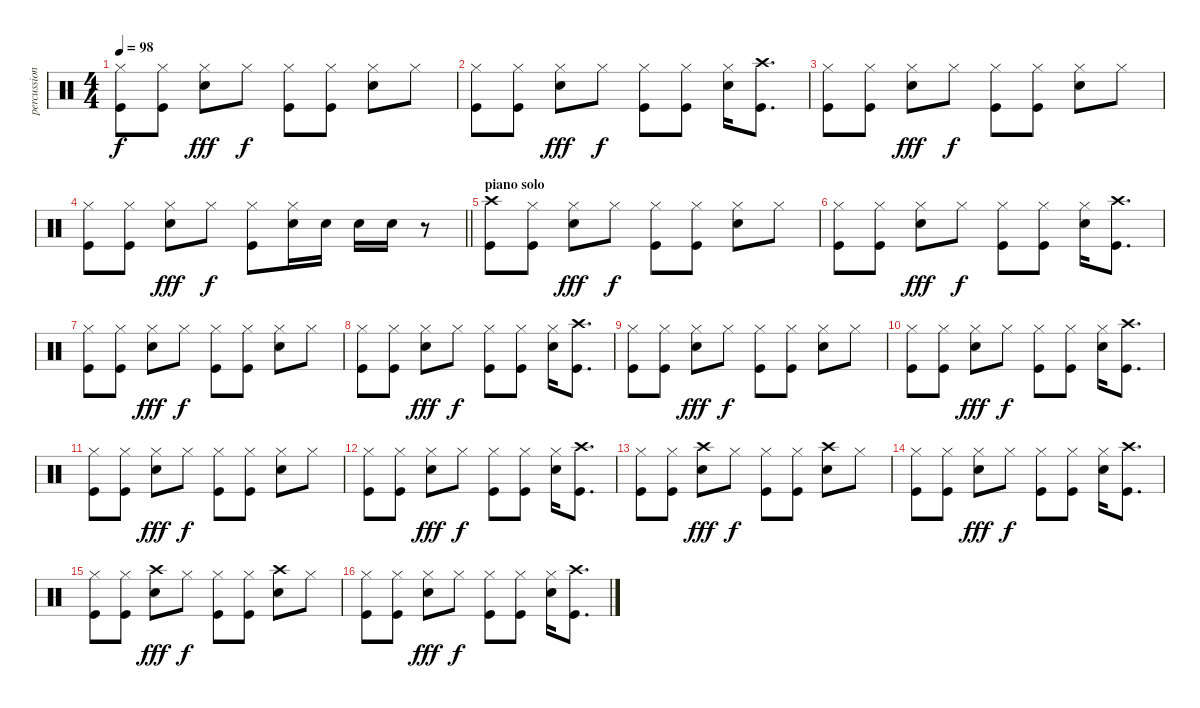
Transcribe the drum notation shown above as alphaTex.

\track ("percussion" "percussion") {instrument percussion}
\staff {score}
\articulation defaults
\ts (4 4)
\tempo 98
\clef neutral
\ks c
("Hi-Hat (closed)" "Kick (hit)").8{dy f} ("Hi-Hat (closed)" "Kick (hit)").8 ("Electric Snare (hit)" "Hi-Hat (closed)").8{dy fff} "Hi-Hat (closed)".8{dy f} ("Hi-Hat (closed)" "Kick (hit)").8 ("Hi-Hat (closed)" "Kick (hit)").8 ("Electric Snare (hit)" "Hi-Hat (closed)").8 "Hi-Hat (closed)".8 |
("Hi-Hat (closed)" "Kick (hit)").8 ("Hi-Hat (closed)" "Kick (hit)").8 ("Electric Snare (hit)" "Hi-Hat (closed)").8{dy fff} "Hi-Hat (closed)".8{dy f} ("Hi-Hat (closed)" "Kick (hit)").8 ("Hi-Hat (closed)" "Kick (hit)").8 ("Electric Snare (hit)" "Hi-Hat (closed)").16 ("Crash high (hit)" "Kick (hit)").8{d} |
("Hi-Hat (closed)" "Kick (hit)").8 ("Hi-Hat (closed)" "Kick (hit)").8 ("Electric Snare (hit)" "Hi-Hat (closed)").8{dy fff} "Hi-Hat (closed)".8{dy f} ("Hi-Hat (closed)" "Kick (hit)").8 ("Hi-Hat (closed)" "Kick (hit)").8 ("Electric Snare (hit)" "Hi-Hat (closed)").8 "Hi-Hat (closed)".8 |
\barLineRight lightlight
("Hi-Hat (closed)" "Kick (hit)").8 ("Hi-Hat (closed)" "Kick (hit)").8 ("Electric Snare (hit)" "Hi-Hat (closed)").8{dy fff} "Hi-Hat (closed)".8{dy f} ("Hi-Hat (closed)" "Kick (hit)").8 ("Electric Snare (hit)" "Hi-Hat (closed)").16 "Electric Snare (hit)".16 "Electric Snare (hit)".16 "Electric Snare (hit)".16 r.8 |
\section ("" "piano solo")
("Crash high (hit)" "Kick (hit)").8 ("Hi-Hat (closed)" "Kick (hit)").8 ("Electric Snare (hit)" "Hi-Hat (closed)").8{dy fff} "Hi-Hat (closed)".8{dy f} ("Hi-Hat (closed)" "Kick (hit)").8 ("Hi-Hat (closed)" "Kick (hit)").8 ("Electric Snare (hit)" "Hi-Hat (closed)").8 "Hi-Hat (closed)".8 |
("Hi-Hat (closed)" "Kick (hit)").8 ("Hi-Hat (closed)" "Kick (hit)").8 ("Electric Snare (hit)" "Hi-Hat (closed)").8{dy fff} "Hi-Hat (closed)".8{dy f} ("Hi-Hat (closed)" "Kick (hit)").8 ("Hi-Hat (closed)" "Kick (hit)").8 ("Electric Snare (hit)" "Hi-Hat (closed)").16 ("Crash high (hit)" "Kick (hit)").8{d} |
("Hi-Hat (closed)" "Kick (hit)").8 ("Hi-Hat (closed)" "Kick (hit)").8 ("Electric Snare (hit)" "Hi-Hat (closed)").8{dy fff} "Hi-Hat (closed)".8{dy f} ("Hi-Hat (closed)" "Kick (hit)").8 ("Hi-Hat (closed)" "Kick (hit)").8 ("Electric Snare (hit)" "Hi-Hat (closed)").8 "Hi-Hat (closed)".8 |
("Hi-Hat (closed)" "Kick (hit)").8 ("Hi-Hat (closed)" "Kick (hit)").8 ("Electric Snare (hit)" "Hi-Hat (closed)").8{dy fff} "Hi-Hat (closed)".8{dy f} ("Hi-Hat (closed)" "Kick (hit)").8 ("Hi-Hat (closed)" "Kick (hit)").8 ("Electric Snare (hit)" "Hi-Hat (closed)").16 ("Crash high (hit)" "Kick (hit)").8{d} |
("Hi-Hat (closed)" "Kick (hit)").8 ("Hi-Hat (closed)" "Kick (hit)").8 ("Electric Snare (hit)" "Hi-Hat (closed)").8{dy fff} "Hi-Hat (closed)".8{dy f} ("Hi-Hat (closed)" "Kick (hit)").8 ("Hi-Hat (closed)" "Kick (hit)").8 ("Electric Snare (hit)" "Hi-Hat (closed)").8 "Hi-Hat (closed)".8 |
("Hi-Hat (closed)" "Kick (hit)").8 ("Hi-Hat (closed)" "Kick (hit)").8 ("Electric Snare (hit)" "Hi-Hat (closed)").8{dy fff} "Hi-Hat (closed)".8{dy f} ("Hi-Hat (closed)" "Kick (hit)").8 ("Hi-Hat (closed)" "Kick (hit)").8 ("Electric Snare (hit)" "Hi-Hat (closed)").16 ("Crash high (hit)" "Kick (hit)").8{d} |
("Hi-Hat (closed)" "Kick (hit)").8 ("Hi-Hat (closed)" "Kick (hit)").8 ("Electric Snare (hit)" "Hi-Hat (closed)").8{dy fff} "Hi-Hat (closed)".8{dy f} ("Hi-Hat (closed)" "Kick (hit)").8 ("Hi-Hat (closed)" "Kick (hit)").8 ("Electric Snare (hit)" "Hi-Hat (closed)").8 "Hi-Hat (closed)".8 |
("Hi-Hat (closed)" "Kick (hit)").8 ("Hi-Hat (closed)" "Kick (hit)").8 ("Electric Snare (hit)" "Hi-Hat (closed)").8{dy fff} "Hi-Hat (closed)".8{dy f} ("Hi-Hat (closed)" "Kick (hit)").8 ("Hi-Hat (closed)" "Kick (hit)").8 ("Electric Snare (hit)" "Hi-Hat (closed)").16 ("Crash high (hit)" "Kick (hit)").8{d} |
("Hi-Hat (closed)" "Kick (hit)").8 ("Hi-Hat (closed)" "Kick (hit)").8 ("Crash high (hit)" "Electric Snare (hit)").8{dy fff} "Hi-Hat (closed)".8{dy f} ("Hi-Hat (closed)" "Kick (hit)").8 ("Hi-Hat (closed)" "Kick (hit)").8 ("Crash high (hit)" "Electric Snare (hit)").8 "Hi-Hat (closed)".8 |
("Hi-Hat (closed)" "Kick (hit)").8 ("Hi-Hat (closed)" "Kick (hit)").8 ("Electric Snare (hit)" "Hi-Hat (closed)").8{dy fff} "Hi-Hat (closed)".8{dy f} ("Hi-Hat (closed)" "Kick (hit)").8 ("Hi-Hat (closed)" "Kick (hit)").8 ("Electric Snare (hit)" "Hi-Hat (closed)").16 ("Crash high (hit)" "Kick (hit)").8{d} |
("Hi-Hat (closed)" "Kick (hit)").8 ("Hi-Hat (closed)" "Kick (hit)").8 ("Crash high (hit)" "Electric Snare (hit)").8{dy fff} "Hi-Hat (closed)".8{dy f} ("Hi-Hat (closed)" "Kick (hit)").8 ("Hi-Hat (closed)" "Kick (hit)").8 ("Crash high (hit)" "Electric Snare (hit)").8 "Hi-Hat (closed)".8 |
("Hi-Hat (closed)" "Kick (hit)").8 ("Hi-Hat (closed)" "Kick (hit)").8 ("Electric Snare (hit)" "Hi-Hat (closed)").8{dy fff} "Hi-Hat (closed)".8{dy f} ("Hi-Hat (closed)" "Kick (hit)").8 ("Hi-Hat (closed)" "Kick (hit)").8 ("Electric Snare (hit)" "Hi-Hat (closed)").16 ("Crash high (hit)" "Kick (hit)").8{d}
